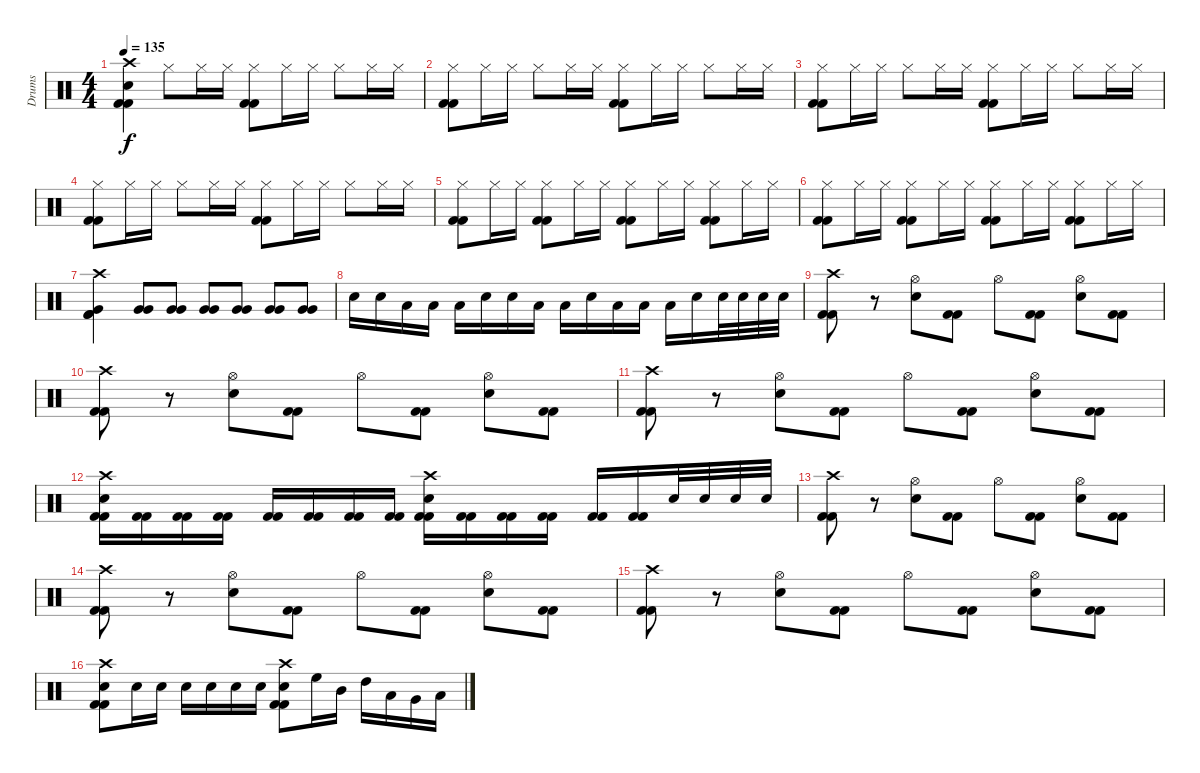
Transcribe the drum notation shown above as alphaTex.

\track ("Drums" "Drums") {instrument percussion}
\staff {score}
\articulation defaults
\ts (4 4)
\tempo 135
\clef neutral
\ks c
("Crash high (hit)" "Electric Snare (hit)" "Kick (hit) 2" "Kick (hit) 2").4{dy f} "Hi-Hat (closed)".8 "Hi-Hat (closed)".16 "Hi-Hat (closed)".16 ("Hi-Hat (closed)" "Kick (hit) 2" "Kick (hit) 2").8 "Hi-Hat (closed)".16 "Hi-Hat (closed)".16 "Hi-Hat (closed)".8 "Hi-Hat (closed)".16 "Hi-Hat (closed)".16 |
("Hi-Hat (closed)" "Kick (hit) 2" "Kick (hit) 2").8 "Hi-Hat (closed)".16 "Hi-Hat (closed)".16 "Hi-Hat (closed)".8 "Hi-Hat (closed)".16 "Hi-Hat (closed)".16 ("Hi-Hat (closed)" "Kick (hit) 2" "Kick (hit) 2").8 "Hi-Hat (closed)".16 "Hi-Hat (closed)".16 "Hi-Hat (closed)".8 "Hi-Hat (closed)".16 "Hi-Hat (closed)".16 |
("Hi-Hat (closed)" "Kick (hit) 2" "Kick (hit) 2").8 "Hi-Hat (closed)".16 "Hi-Hat (closed)".16 "Hi-Hat (closed)".8 "Hi-Hat (closed)".16 "Hi-Hat (closed)".16 ("Hi-Hat (closed)" "Kick (hit) 2" "Kick (hit) 2").8 "Hi-Hat (closed)".16 "Hi-Hat (closed)".16 "Hi-Hat (closed)".8 "Hi-Hat (closed)".16 "Hi-Hat (closed)".16 |
("Hi-Hat (closed)" "Kick (hit) 2" "Kick (hit) 2").8 "Hi-Hat (closed)".16 "Hi-Hat (closed)".16 "Hi-Hat (closed)".8 "Hi-Hat (closed)".16 "Hi-Hat (closed)".16 ("Hi-Hat (closed)" "Kick (hit) 2" "Kick (hit) 2").8 "Hi-Hat (closed)".16 "Hi-Hat (closed)".16 "Hi-Hat (closed)".8 "Hi-Hat (closed)".16 "Hi-Hat (closed)".16 |
("Hi-Hat (closed)" "Kick (hit) 2" "Kick (hit) 2").8 "Hi-Hat (closed)".16 "Hi-Hat (closed)".16 ("Hi-Hat (closed)" "Kick (hit) 2" "Kick (hit) 2").8 "Hi-Hat (closed)".16 "Hi-Hat (closed)".16 ("Hi-Hat (closed)" "Kick (hit) 2" "Kick (hit) 2").8 "Hi-Hat (closed)".16 "Hi-Hat (closed)".16 ("Hi-Hat (closed)" "Kick (hit) 2" "Kick (hit) 2").8 "Hi-Hat (closed)".16 "Hi-Hat (closed)".16 |
("Hi-Hat (closed)" "Kick (hit) 2" "Kick (hit) 2").8 "Hi-Hat (closed)".16 "Hi-Hat (closed)".16 ("Hi-Hat (closed)" "Kick (hit) 2" "Kick (hit) 2").8 "Hi-Hat (closed)".16 "Hi-Hat (closed)".16 ("Hi-Hat (closed)" "Kick (hit) 2" "Kick (hit) 2").8 "Hi-Hat (closed)".16 "Hi-Hat (closed)".16 ("Hi-Hat (closed)" "Kick (hit) 2" "Kick (hit) 2").8 "Hi-Hat (closed)".16 "Hi-Hat (closed)".16 |
("Crash high (hit)" "Very Low Tom (hit)" "Kick (hit) 2" "Kick (hit) 2").4 ("Very Low Tom (hit)" "Very Low Tom (hit)").8 ("Very Low Tom (hit)" "Very Low Tom (hit)").8 ("Very Low Tom (hit)" "Very Low Tom (hit)").8 ("Very Low Tom (hit)" "Very Low Tom (hit)").8 ("Very Low Tom (hit)" "Very Low Tom (hit)").8 ("Very Low Tom (hit)" "Very Low Tom (hit)").8 |
"Electric Snare (hit)".16 "Electric Snare (hit)".16 "Low Floor Tom (hit)".16 "Low Floor Tom (hit)".16 "Low Floor Tom (hit)".16 "Electric Snare (hit)".16 "Electric Snare (hit)".16 "Low Floor Tom (hit)".16 "Low Floor Tom (hit)".16 "Electric Snare (hit)".16 "Low Floor Tom (hit)".16 "Low Floor Tom (hit)".16 "Low Floor Tom (hit)".16 "Electric Snare (hit)".16 "Electric Snare (hit)".32 "Electric Snare (hit)".32 "Electric Snare (hit)".32 "Electric Snare (hit)".32 |
("Crash high (hit)" "Kick (hit) 2" "Kick (hit) 2").8 r.8 ("Hi-Hat (open)" "Electric Snare (hit)").8 ("Kick (hit) 2" "Kick (hit) 2").8 "Hi-Hat (open)".8 ("Kick (hit) 2" "Kick (hit) 2").8 ("Hi-Hat (open)" "Electric Snare (hit)").8 ("Kick (hit) 2" "Kick (hit) 2").8 |
("Crash high (hit)" "Kick (hit) 2" "Kick (hit) 2").8 r.8 ("Hi-Hat (open)" "Electric Snare (hit)").8 ("Kick (hit) 2" "Kick (hit) 2").8 "Hi-Hat (open)".8 ("Kick (hit) 2" "Kick (hit) 2").8 ("Hi-Hat (open)" "Electric Snare (hit)").8 ("Kick (hit) 2" "Kick (hit) 2").8 |
("Crash high (hit)" "Kick (hit) 2" "Kick (hit) 2").8 r.8 ("Hi-Hat (open)" "Electric Snare (hit)").8 ("Kick (hit) 2" "Kick (hit) 2").8 "Hi-Hat (open)".8 ("Kick (hit) 2" "Kick (hit) 2").8 ("Hi-Hat (open)" "Electric Snare (hit)").8 ("Kick (hit) 2" "Kick (hit) 2").8 |
("Crash high (hit)" "Electric Snare (hit)" "Kick (hit) 2" "Kick (hit) 2").16 ("Kick (hit) 2" "Kick (hit) 2").16 ("Kick (hit) 2" "Kick (hit) 2").16 ("Kick (hit) 2" "Kick (hit) 2").16 ("Kick (hit) 2" "Kick (hit) 2").16 ("Kick (hit) 2" "Kick (hit) 2").16 ("Kick (hit) 2" "Kick (hit) 2").16 ("Kick (hit) 2" "Kick (hit) 2").16 ("Crash high (hit)" "Electric Snare (hit)" "Kick (hit) 2" "Kick (hit) 2").16 ("Kick (hit) 2" "Kick (hit) 2").16 ("Kick (hit) 2" "Kick (hit) 2").16 ("Kick (hit) 2" "Kick (hit) 2").16 ("Kick (hit) 2" "Kick (hit) 2").16 ("Kick (hit) 2" "Kick (hit) 2").16 "Electric Snare (hit)".32 "Electric Snare (hit)".32 "Electric Snare (hit)".32 "Electric Snare (hit)".32 |
("Crash high (hit)" "Kick (hit) 2" "Kick (hit) 2").8 r.8 ("Hi-Hat (open)" "Electric Snare (hit)").8 ("Kick (hit) 2" "Kick (hit) 2").8 "Hi-Hat (open)".8 ("Kick (hit) 2" "Kick (hit) 2").8 ("Hi-Hat (open)" "Electric Snare (hit)").8 ("Kick (hit) 2" "Kick (hit) 2").8 |
("Crash high (hit)" "Kick (hit) 2" "Kick (hit) 2").8 r.8 ("Hi-Hat (open)" "Electric Snare (hit)").8 ("Kick (hit) 2" "Kick (hit) 2").8 "Hi-Hat (open)".8 ("Kick (hit) 2" "Kick (hit) 2").8 ("Hi-Hat (open)" "Electric Snare (hit)").8 ("Kick (hit) 2" "Kick (hit) 2").8 |
("Crash high (hit)" "Kick (hit) 2" "Kick (hit) 2").8 r.8 ("Hi-Hat (open)" "Electric Snare (hit)").8 ("Kick (hit) 2" "Kick (hit) 2").8 "Hi-Hat (open)".8 ("Kick (hit) 2" "Kick (hit) 2").8 ("Hi-Hat (open)" "Electric Snare (hit)").8 ("Kick (hit) 2" "Kick (hit) 2").8 |
("Crash high (hit)" "Kick (hit) 2" "Electric Snare (hit)" "Kick (hit) 2").8 "Electric Snare (hit)".16 "Electric Snare (hit)".16 "Electric Snare (hit)".16 "Electric Snare (hit)".16 "Electric Snare (hit)".16 "Electric Snare (hit)".16 ("Crash high (hit)" "Kick (hit) 2" "Electric Snare (hit)" "Kick (hit) 2").8 "High Floor Tom (hit)".16 "Mid Tom (hit)".16 "High Tom (hit)".16 "Low Tom (hit)".16 "Very Low Tom (hit)".16 "Low Floor Tom (hit)".16
